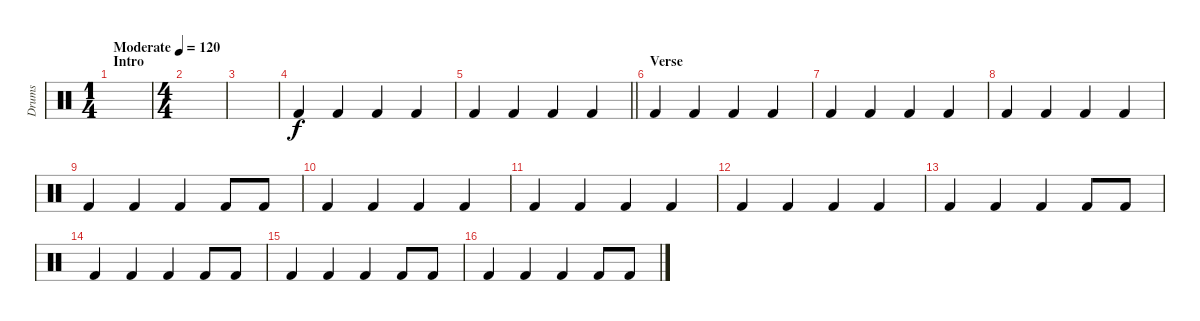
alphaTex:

\track ("Drums" "Drums") {instrument percussion}
\staff {score}
\articulation defaults
\ts (1 4)
\section ("" "Intro")
\tempo (120 "Moderate")
\clef neutral
\ks c
|
\ts (4 4)
|
|
"Kick (hit) 2".4 "Kick (hit) 2".4 "Kick (hit) 2".4 "Kick (hit) 2".4 |
\barLineRight lightlight "Kick (hit) 2".4 "Kick (hit) 2".4 "Kick (hit) 2".4 "Kick (hit) 2".4
|
\section ("" "Verse")
"Kick (hit) 2".4 "Kick (hit) 2".4 "Kick (hit) 2".4 "Kick (hit) 2".4 |
"Kick (hit) 2".4 "Kick (hit) 2".4 "Kick (hit) 2".4 "Kick (hit) 2".4 |
"Kick (hit) 2".4 "Kick (hit) 2".4 "Kick (hit) 2".4 "Kick (hit) 2".4 |
"Kick (hit) 2".4 "Kick (hit) 2".4 "Kick (hit) 2".4 "Kick (hit) 2".8 "Kick (hit) 2".8 |
"Kick (hit) 2".4 "Kick (hit) 2".4 "Kick (hit) 2".4 "Kick (hit) 2".4 |
"Kick (hit) 2".4 "Kick (hit) 2".4 "Kick (hit) 2".4 "Kick (hit) 2".4 |
"Kick (hit) 2".4 "Kick (hit) 2".4 "Kick (hit) 2".4 "Kick (hit) 2".4 |
"Kick (hit) 2".4 "Kick (hit) 2".4 "Kick (hit) 2".4 "Kick (hit) 2".8 "Kick (hit) 2".8 |
"Kick (hit) 2".4 "Kick (hit) 2".4 "Kick (hit) 2".4 "Kick (hit) 2".8 "Kick (hit) 2".8 |
"Kick (hit) 2".4 "Kick (hit) 2".4 "Kick (hit) 2".4 "Kick (hit) 2".8 "Kick (hit) 2".8 |
"Kick (hit) 2".4 "Kick (hit) 2".4 "Kick (hit) 2".4 "Kick (hit) 2".8 "Kick (hit) 2".8
